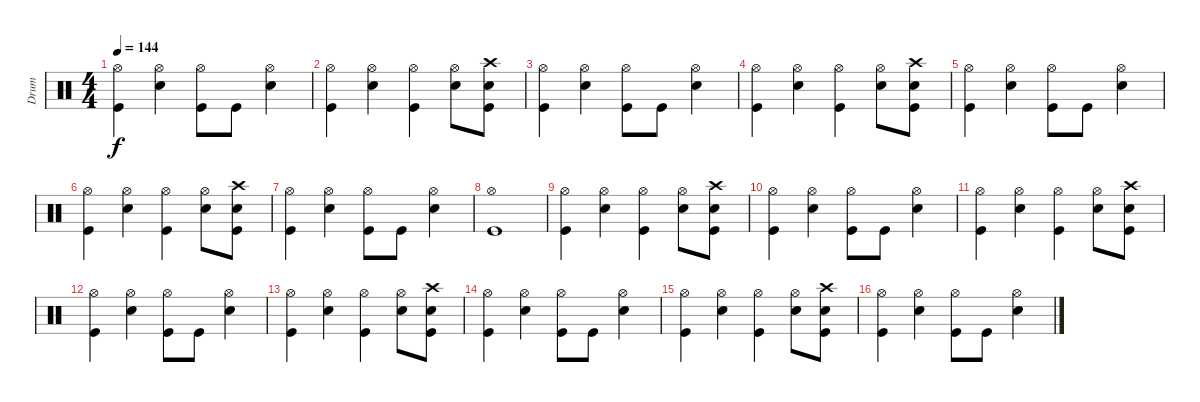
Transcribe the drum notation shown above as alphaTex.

\track ("Drum" "Drum") {instrument percussion}
\staff {score}
\articulation defaults
\ts (4 4)
\tempo 144
\clef neutral
\ks c
("Hi-Hat (open)" "Kick (hit)").4{dy f} ("Hi-Hat (open)" "Electric Snare (hit)").4 ("Hi-Hat (open)" "Kick (hit)").8 "Kick (hit)".8 ("Hi-Hat (open)" "Electric Snare (hit)").4 |
("Hi-Hat (open)" "Kick (hit)").4 ("Hi-Hat (open)" "Electric Snare (hit)").4 ("Hi-Hat (open)" "Kick (hit)").4 ("Hi-Hat (open)" "Electric Snare (hit)").8 ("Crash high (hit)" "Electric Snare (hit)" "Kick (hit)").8 |
("Hi-Hat (open)" "Kick (hit)").4 ("Hi-Hat (open)" "Electric Snare (hit)").4 ("Hi-Hat (open)" "Kick (hit)").8 "Kick (hit)".8 ("Hi-Hat (open)" "Electric Snare (hit)").4 |
("Hi-Hat (open)" "Kick (hit)").4 ("Hi-Hat (open)" "Electric Snare (hit)").4 ("Hi-Hat (open)" "Kick (hit)").4 ("Hi-Hat (open)" "Electric Snare (hit)").8 ("Crash high (hit)" "Electric Snare (hit)" "Kick (hit)").8 |
("Hi-Hat (open)" "Kick (hit)").4 ("Hi-Hat (open)" "Electric Snare (hit)").4 ("Hi-Hat (open)" "Kick (hit)").8 "Kick (hit)".8 ("Hi-Hat (open)" "Electric Snare (hit)").4 |
("Hi-Hat (open)" "Kick (hit)").4 ("Hi-Hat (open)" "Electric Snare (hit)").4 ("Hi-Hat (open)" "Kick (hit)").4 ("Hi-Hat (open)" "Electric Snare (hit)").8 ("Crash high (hit)" "Electric Snare (hit)" "Kick (hit)").8 |
("Hi-Hat (open)" "Kick (hit)").4 ("Hi-Hat (open)" "Electric Snare (hit)").4 ("Hi-Hat (open)" "Kick (hit)").8 "Kick (hit)".8 ("Hi-Hat (open)" "Electric Snare (hit)").4 |
("Hi-Hat (open)" "Kick (hit)").1 |
("Hi-Hat (open)" "Kick (hit)").4 ("Hi-Hat (open)" "Electric Snare (hit)").4 ("Hi-Hat (open)" "Kick (hit)").4 ("Hi-Hat (open)" "Electric Snare (hit)").8 ("Crash high (hit)" "Electric Snare (hit)" "Kick (hit)").8 |
("Hi-Hat (open)" "Kick (hit)").4 ("Hi-Hat (open)" "Electric Snare (hit)").4 ("Hi-Hat (open)" "Kick (hit)").8 "Kick (hit)".8 ("Hi-Hat (open)" "Electric Snare (hit)").4 |
("Hi-Hat (open)" "Kick (hit)").4 ("Hi-Hat (open)" "Electric Snare (hit)").4 ("Hi-Hat (open)" "Kick (hit)").4 ("Hi-Hat (open)" "Electric Snare (hit)").8 ("Crash high (hit)" "Electric Snare (hit)" "Kick (hit)").8 |
("Hi-Hat (open)" "Kick (hit)").4 ("Hi-Hat (open)" "Electric Snare (hit)").4 ("Hi-Hat (open)" "Kick (hit)").8 "Kick (hit)".8 ("Hi-Hat (open)" "Electric Snare (hit)").4 |
("Hi-Hat (open)" "Kick (hit)").4 ("Hi-Hat (open)" "Electric Snare (hit)").4 ("Hi-Hat (open)" "Kick (hit)").4 ("Hi-Hat (open)" "Electric Snare (hit)").8 ("Crash high (hit)" "Electric Snare (hit)" "Kick (hit)").8 |
("Hi-Hat (open)" "Kick (hit)").4 ("Hi-Hat (open)" "Electric Snare (hit)").4 ("Hi-Hat (open)" "Kick (hit)").8 "Kick (hit)".8 ("Hi-Hat (open)" "Electric Snare (hit)").4 |
("Hi-Hat (open)" "Kick (hit)").4 ("Hi-Hat (open)" "Electric Snare (hit)").4 ("Hi-Hat (open)" "Kick (hit)").4 ("Hi-Hat (open)" "Electric Snare (hit)").8 ("Crash high (hit)" "Electric Snare (hit)" "Kick (hit)").8 |
("Hi-Hat (open)" "Kick (hit)").4 ("Hi-Hat (open)" "Electric Snare (hit)").4 ("Hi-Hat (open)" "Kick (hit)").8 "Kick (hit)".8 ("Hi-Hat (open)" "Electric Snare (hit)").4
